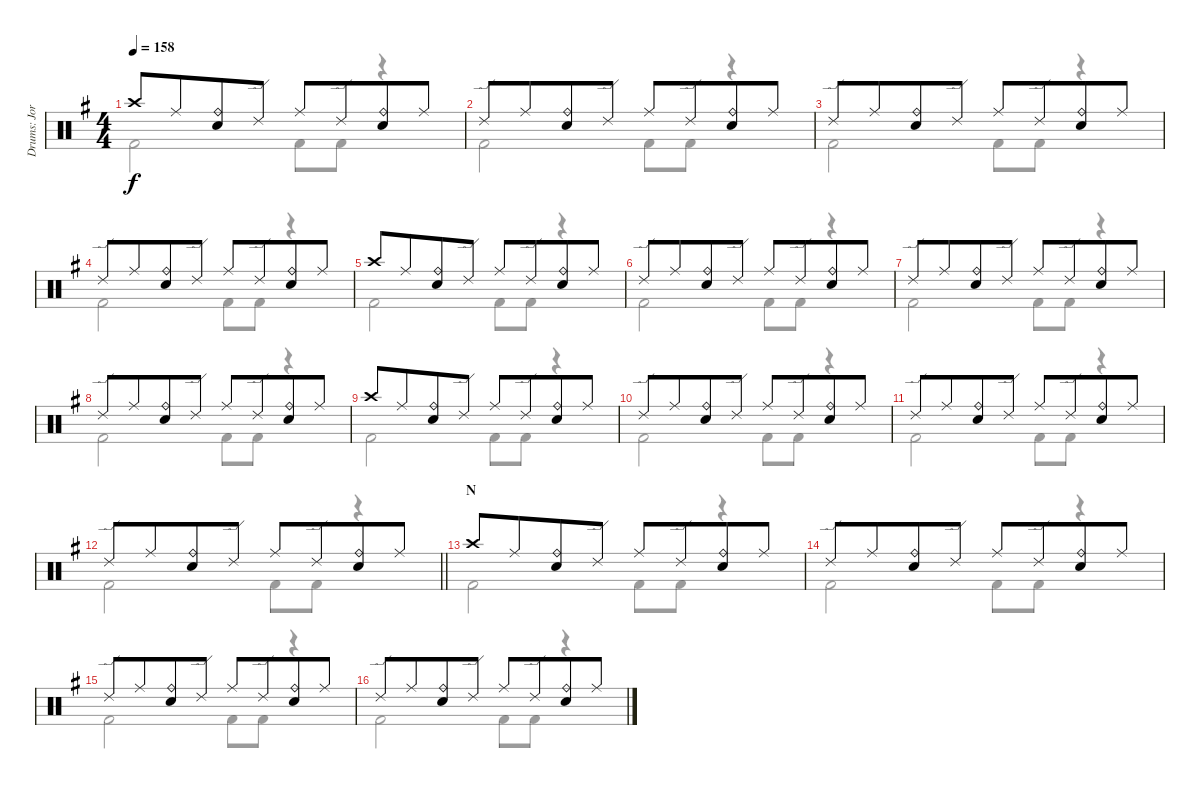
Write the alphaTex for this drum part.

\track ("Drums: Jorg" "Drums: Jor") {instrument percussion}
\staff {score}
\articulation defaults
\voice
\ts (4 4)
\tempo 158
\clef neutral
\ks g "Crash high (hit)".8{dy f} "Ride (middle)".8{beam merge}
("Ride (bell)" "Snare (hit) 2").8 "Ride (edge) 2".8 "Ride (middle)".8 "Ride (edge) 2".8{beam merge} ("Ride (bell)" "Snare (hit) 2").8 "Ride (middle)".8 |
"Ride (edge) 2".8 "Ride (middle)".8{beam merge} ("Ride (bell)" "Snare (hit) 2").8 "Ride (edge) 2".8 "Ride (middle)".8 "Ride (edge) 2".8{beam merge} ("Ride (bell)" "Snare (hit) 2").8 "Ride (middle)".8 |
"Ride (edge) 2".8 "Ride (middle)".8{beam merge} ("Ride (bell)" "Snare (hit) 2").8 "Ride (edge) 2".8 "Ride (middle)".8 "Ride (edge) 2".8{beam merge} ("Ride (bell)" "Snare (hit) 2").8 "Ride (middle)".8 |
"Ride (edge) 2".8 "Ride (middle)".8{beam merge} ("Ride (bell)" "Snare (hit) 2").8 "Ride (edge) 2".8 "Ride (middle)".8 "Ride (edge) 2".8{beam merge} ("Ride (bell)" "Snare (hit) 2").8 "Ride (middle)".8 |
"Crash high (hit)".8 "Ride (middle)".8{beam merge} ("Ride (bell)" "Snare (hit) 2").8 "Ride (edge) 2".8 "Ride (middle)".8 "Ride (edge) 2".8{beam merge} ("Ride (bell)" "Snare (hit) 2").8 "Ride (middle)".8 |
"Ride (edge) 2".8 "Ride (middle)".8{beam merge} ("Ride (bell)" "Snare (hit) 2").8 "Ride (edge) 2".8 "Ride (middle)".8 "Ride (edge) 2".8{beam merge} ("Ride (bell)" "Snare (hit) 2").8 "Ride (middle)".8 |
"Ride (edge) 2".8 "Ride (middle)".8{beam merge} ("Ride (bell)" "Snare (hit) 2").8 "Ride (edge) 2".8 "Ride (middle)".8 "Ride (edge) 2".8{beam merge} ("Ride (bell)" "Snare (hit) 2").8 "Ride (middle)".8 |
"Ride (edge) 2".8 "Ride (middle)".8{beam merge} ("Ride (bell)" "Snare (hit) 2").8 "Ride (edge) 2".8 "Ride (middle)".8 "Ride (edge) 2".8{beam merge} ("Ride (bell)" "Snare (hit) 2").8 "Ride (middle)".8 |
"Crash high (hit)".8 "Ride (middle)".8{beam merge} ("Ride (bell)" "Snare (hit) 2").8 "Ride (edge) 2".8 "Ride (middle)".8 "Ride (edge) 2".8{beam merge} ("Ride (bell)" "Snare (hit) 2").8 "Ride (middle)".8 |
"Ride (edge) 2".8 "Ride (middle)".8{beam merge} ("Ride (bell)" "Snare (hit) 2").8 "Ride (edge) 2".8 "Ride (middle)".8 "Ride (edge) 2".8{beam merge} ("Ride (bell)" "Snare (hit) 2").8 "Ride (middle)".8 |
"Ride (edge) 2".8 "Ride (middle)".8{beam merge} ("Ride (bell)" "Snare (hit) 2").8 "Ride (edge) 2".8 "Ride (middle)".8 "Ride (edge) 2".8{beam merge} ("Ride (bell)" "Snare (hit) 2").8 "Ride (middle)".8 |
\barLineRight lightlight "Ride (edge) 2".8 "Ride (middle)".8{beam merge}
("Ride (bell)" "Snare (hit) 2").8 "Ride (edge) 2".8 "Ride (middle)".8 "Ride (edge) 2".8{beam merge} ("Ride (bell)" "Snare (hit) 2").8 "Ride (middle)".8 |
\section ("" "N")
"Crash high (hit)".8 "Ride (middle)".8{beam merge} ("Ride (bell)" "Snare (hit) 2").8 "Ride (edge) 2".8 "Ride (middle)".8 "Ride (edge) 2".8{beam merge} ("Ride (bell)" "Snare (hit) 2").8 "Ride (middle)".8 |
"Ride (edge) 2".8 "Ride (middle)".8{beam merge} ("Ride (bell)" "Snare (hit) 2").8 "Ride (edge) 2".8 "Ride (middle)".8 "Ride (edge) 2".8{beam merge} ("Ride (bell)" "Snare (hit) 2").8 "Ride (middle)".8 |
"Ride (edge) 2".8 "Ride (middle)".8{beam merge} ("Ride (bell)" "Snare (hit) 2").8 "Ride (edge) 2".8 "Ride (middle)".8 "Ride (edge) 2".8{beam merge} ("Ride (bell)" "Snare (hit) 2").8 "Ride (middle)".8 |
"Ride (edge) 2".8 "Ride (middle)".8{beam merge} ("Ride (bell)" "Snare (hit) 2").8 "Ride (edge) 2".8 "Ride (middle)".8 "Ride (edge) 2".8{beam merge} ("Ride (bell)" "Snare (hit) 2").8 "Ride (middle)".8
\voice
\clef neutral
\ottava regular
\simile none
\ks g "Kick (hit) 2".2{dy f} "Kick (hit) 2".8 "Kick (hit) 2".8
r.4 |
"Kick (hit) 2".2 "Kick (hit) 2".8 "Kick (hit) 2".8 r.4 |
"Kick (hit) 2".2 "Kick (hit) 2".8 "Kick (hit) 2".8 r.4 |
"Kick (hit) 2".2 "Kick (hit) 2".8 "Kick (hit) 2".8 r.4 |
"Kick (hit) 2".2 "Kick (hit) 2".8 "Kick (hit) 2".8 r.4 |
"Kick (hit) 2".2 "Kick (hit) 2".8 "Kick (hit) 2".8 r.4 |
"Kick (hit) 2".2 "Kick (hit) 2".8 "Kick (hit) 2".8 r.4 |
"Kick (hit) 2".2 "Kick (hit) 2".8 "Kick (hit) 2".8 r.4 |
"Kick (hit) 2".2 "Kick (hit) 2".8 "Kick (hit) 2".8 r.4 |
"Kick (hit) 2".2 "Kick (hit) 2".8 "Kick (hit) 2".8 r.4 |
"Kick (hit) 2".2 "Kick (hit) 2".8 "Kick (hit) 2".8 r.4 |
\barLineRight lightlight "Kick (hit) 2".2 "Kick (hit) 2".8 "Kick (hit) 2".8
r.4 |
"Kick (hit) 2".2 "Kick (hit) 2".8 "Kick (hit) 2".8 r.4 |
"Kick (hit) 2".2 "Kick (hit) 2".8 "Kick (hit) 2".8 r.4 |
"Kick (hit) 2".2 "Kick (hit) 2".8 "Kick (hit) 2".8 r.4 |
"Kick (hit) 2".2 "Kick (hit) 2".8 "Kick (hit) 2".8 r.4
